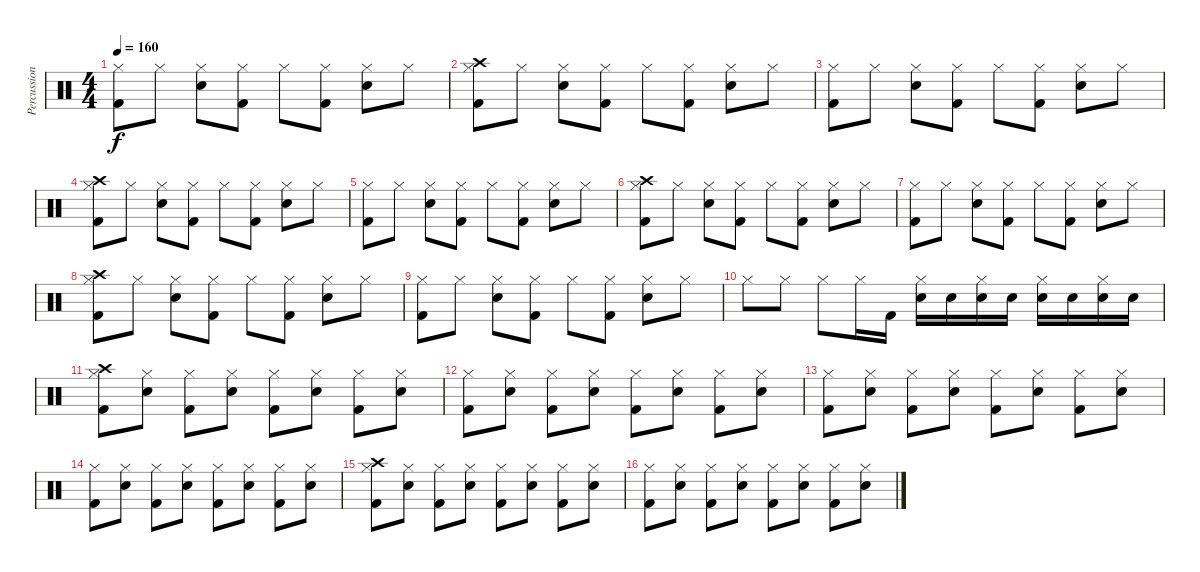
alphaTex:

\track ("Percussion" "Percussion") {instrument percussion}
\staff {score}
\articulation defaults
\ts (4 4)
\tempo 160
\clef neutral
\ks c
("Hi-Hat (closed)" "Kick (hit) 2").8{dy f} "Hi-Hat (closed)".8 ("Hi-Hat (closed)" "Electric Snare (hit)").8 ("Hi-Hat (closed)" "Kick (hit) 2").8 "Hi-Hat (closed)".8 ("Hi-Hat (closed)" "Kick (hit) 2").8 ("Hi-Hat (closed)" "Electric Snare (hit)").8 "Hi-Hat (closed)".8 |
("Hi-Hat (closed)" "Kick (hit) 2" "Crash high (hit)").8 "Hi-Hat (closed)".8 ("Hi-Hat (closed)" "Electric Snare (hit)").8 ("Hi-Hat (closed)" "Kick (hit) 2").8 "Hi-Hat (closed)".8 ("Hi-Hat (closed)" "Kick (hit) 2").8 ("Hi-Hat (closed)" "Electric Snare (hit)").8 "Hi-Hat (closed)".8 |
("Hi-Hat (closed)" "Kick (hit) 2").8 "Hi-Hat (closed)".8 ("Hi-Hat (closed)" "Electric Snare (hit)").8 ("Hi-Hat (closed)" "Kick (hit) 2").8 "Hi-Hat (closed)".8 ("Hi-Hat (closed)" "Kick (hit) 2").8 ("Hi-Hat (closed)" "Electric Snare (hit)").8 "Hi-Hat (closed)".8 |
("Hi-Hat (closed)" "Kick (hit) 2" "Crash high (hit)").8 "Hi-Hat (closed)".8 ("Hi-Hat (closed)" "Electric Snare (hit)").8 ("Hi-Hat (closed)" "Kick (hit) 2").8 "Hi-Hat (closed)".8 ("Hi-Hat (closed)" "Kick (hit) 2").8 ("Hi-Hat (closed)" "Electric Snare (hit)").8 "Hi-Hat (closed)".8 |
("Hi-Hat (closed)" "Kick (hit) 2").8 "Hi-Hat (closed)".8 ("Hi-Hat (closed)" "Electric Snare (hit)").8 ("Hi-Hat (closed)" "Kick (hit) 2").8 "Hi-Hat (closed)".8 ("Hi-Hat (closed)" "Kick (hit) 2").8 ("Hi-Hat (closed)" "Electric Snare (hit)").8 "Hi-Hat (closed)".8 |
("Hi-Hat (closed)" "Kick (hit) 2" "Crash high (hit)").8 "Hi-Hat (closed)".8 ("Hi-Hat (closed)" "Electric Snare (hit)").8 ("Hi-Hat (closed)" "Kick (hit) 2").8 "Hi-Hat (closed)".8 ("Hi-Hat (closed)" "Kick (hit) 2").8 ("Hi-Hat (closed)" "Electric Snare (hit)").8 "Hi-Hat (closed)".8 |
("Hi-Hat (closed)" "Kick (hit) 2").8 "Hi-Hat (closed)".8 ("Hi-Hat (closed)" "Electric Snare (hit)").8 ("Hi-Hat (closed)" "Kick (hit) 2").8 "Hi-Hat (closed)".8 ("Hi-Hat (closed)" "Kick (hit) 2").8 ("Hi-Hat (closed)" "Electric Snare (hit)").8 "Hi-Hat (closed)".8 |
("Hi-Hat (closed)" "Kick (hit) 2" "Crash high (hit)").8 "Hi-Hat (closed)".8 ("Hi-Hat (closed)" "Electric Snare (hit)").8 ("Hi-Hat (closed)" "Kick (hit) 2").8 "Hi-Hat (closed)".8 ("Hi-Hat (closed)" "Kick (hit) 2").8 ("Hi-Hat (closed)" "Electric Snare (hit)").8 "Hi-Hat (closed)".8 |
("Hi-Hat (closed)" "Kick (hit) 2").8 "Hi-Hat (closed)".8 ("Hi-Hat (closed)" "Electric Snare (hit)").8 ("Hi-Hat (closed)" "Kick (hit) 2").8 "Hi-Hat (closed)".8 ("Hi-Hat (closed)" "Kick (hit) 2").8 ("Hi-Hat (closed)" "Electric Snare (hit)").8 "Hi-Hat (closed)".8 |
"Hi-Hat (closed)".8 "Hi-Hat (closed)".8 "Hi-Hat (closed)".8 "Hi-Hat (closed)".16 "Kick (hit) 2".16 ("Hi-Hat (closed)" "Electric Snare (hit)").16 "Electric Snare (hit)".16 ("Hi-Hat (closed)" "Electric Snare (hit)").16 "Electric Snare (hit)".16 ("Hi-Hat (closed)" "Electric Snare (hit)").16 "Electric Snare (hit)".16 ("Hi-Hat (closed)" "Electric Snare (hit)").16 "Electric Snare (hit)".16 |
("Hi-Hat (closed)" "Crash high (hit)" "Kick (hit) 2").8 ("Hi-Hat (closed)" "Electric Snare (hit)").8 ("Hi-Hat (closed)" "Kick (hit) 2").8 ("Hi-Hat (closed)" "Electric Snare (hit)").8 ("Hi-Hat (closed)" "Kick (hit) 2").8 ("Hi-Hat (closed)" "Electric Snare (hit)").8 ("Hi-Hat (closed)" "Kick (hit) 2").8 ("Hi-Hat (closed)" "Electric Snare (hit)").8 |
("Hi-Hat (closed)" "Kick (hit) 2").8 ("Hi-Hat (closed)" "Electric Snare (hit)").8 ("Hi-Hat (closed)" "Kick (hit) 2").8 ("Hi-Hat (closed)" "Electric Snare (hit)").8 ("Hi-Hat (closed)" "Kick (hit) 2").8 ("Hi-Hat (closed)" "Electric Snare (hit)").8 ("Hi-Hat (closed)" "Kick (hit) 2").8 ("Hi-Hat (closed)" "Electric Snare (hit)").8 |
("Hi-Hat (closed)" "Kick (hit) 2").8 ("Hi-Hat (closed)" "Electric Snare (hit)").8 ("Hi-Hat (closed)" "Kick (hit) 2").8 ("Hi-Hat (closed)" "Electric Snare (hit)").8 ("Hi-Hat (closed)" "Kick (hit) 2").8 ("Hi-Hat (closed)" "Electric Snare (hit)").8 ("Hi-Hat (closed)" "Kick (hit) 2").8 ("Hi-Hat (closed)" "Electric Snare (hit)").8 |
("Hi-Hat (closed)" "Kick (hit) 2").8 ("Hi-Hat (closed)" "Electric Snare (hit)").8 ("Hi-Hat (closed)" "Kick (hit) 2").8 ("Hi-Hat (closed)" "Electric Snare (hit)").8 ("Hi-Hat (closed)" "Kick (hit) 2").8 ("Hi-Hat (closed)" "Electric Snare (hit)").8 ("Hi-Hat (closed)" "Kick (hit) 2").8 ("Hi-Hat (closed)" "Electric Snare (hit)").8 |
("Hi-Hat (closed)" "Crash high (hit)" "Kick (hit) 2").8 ("Hi-Hat (closed)" "Electric Snare (hit)").8 ("Hi-Hat (closed)" "Kick (hit) 2").8 ("Hi-Hat (closed)" "Electric Snare (hit)").8 ("Hi-Hat (closed)" "Kick (hit) 2").8 ("Hi-Hat (closed)" "Electric Snare (hit)").8 ("Hi-Hat (closed)" "Kick (hit) 2").8 ("Hi-Hat (closed)" "Electric Snare (hit)").8 |
("Hi-Hat (closed)" "Kick (hit) 2").8 ("Hi-Hat (closed)" "Electric Snare (hit)").8 ("Hi-Hat (closed)" "Kick (hit) 2").8 ("Hi-Hat (closed)" "Electric Snare (hit)").8 ("Hi-Hat (closed)" "Kick (hit) 2").8 ("Hi-Hat (closed)" "Electric Snare (hit)").8 ("Hi-Hat (closed)" "Kick (hit) 2").8 ("Hi-Hat (closed)" "Electric Snare (hit)").8
